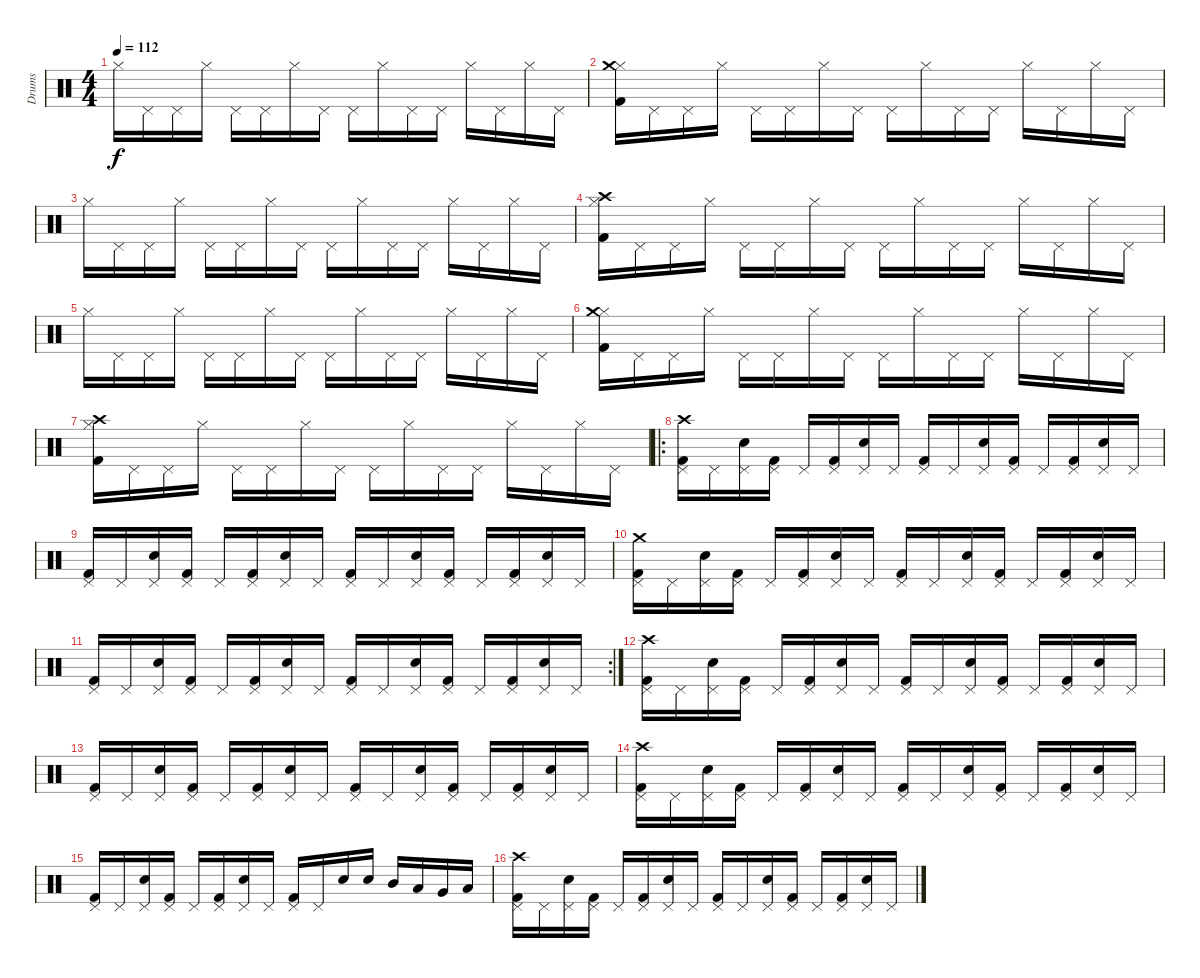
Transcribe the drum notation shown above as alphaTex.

\track ("Drums" "Drums") {instrument percussion}
\staff {score}
\articulation defaults
\ts (4 4)
\tempo 112
\clef neutral
\ks c "Hi-Hat (closed)".16{dy f} "Pedal Hi-Hat (hit)".16 "Pedal Hi-Hat (hit)".16 "Hi-Hat (closed)".16 "Pedal Hi-Hat (hit)".16 "Pedal Hi-Hat (hit)".16 "Hi-Hat (closed)".16 "Pedal Hi-Hat (hit)".16 "Pedal Hi-Hat (hit)".16 "Hi-Hat (closed)".16 "Pedal Hi-Hat (hit)".16 "Pedal Hi-Hat (hit)".16 "Hi-Hat (closed)".16 "Pedal Hi-Hat (hit)".16 "Hi-Hat (closed)".16 "Pedal Hi-Hat (hit)".16
|
("Kick (hit) 2" "Hi-Hat (closed)" "Crash medium (hit)").16 "Pedal Hi-Hat (hit)".16 "Pedal Hi-Hat (hit)".16 "Hi-Hat (closed)".16 "Pedal Hi-Hat (hit)".16 "Pedal Hi-Hat (hit)".16 "Hi-Hat (closed)".16 "Pedal Hi-Hat (hit)".16 "Pedal Hi-Hat (hit)".16 "Hi-Hat (closed)".16 "Pedal Hi-Hat (hit)".16 "Pedal Hi-Hat (hit)".16 "Hi-Hat (closed)".16 "Pedal Hi-Hat (hit)".16 "Hi-Hat (closed)".16 "Pedal Hi-Hat (hit)".16 |
"Hi-Hat (closed)".16 "Pedal Hi-Hat (hit)".16 "Pedal Hi-Hat (hit)".16 "Hi-Hat (closed)".16 "Pedal Hi-Hat (hit)".16 "Pedal Hi-Hat (hit)".16 "Hi-Hat (closed)".16 "Pedal Hi-Hat (hit)".16 "Pedal Hi-Hat (hit)".16 "Hi-Hat (closed)".16 "Pedal Hi-Hat (hit)".16 "Pedal Hi-Hat (hit)".16 "Hi-Hat (closed)".16 "Pedal Hi-Hat (hit)".16 "Hi-Hat (closed)".16 "Pedal Hi-Hat (hit)".16 |
("Kick (hit) 2" "Hi-Hat (closed)" "Crash high (hit)").16 "Pedal Hi-Hat (hit)".16 "Pedal Hi-Hat (hit)".16 "Hi-Hat (closed)".16 "Pedal Hi-Hat (hit)".16 "Pedal Hi-Hat (hit)".16 "Hi-Hat (closed)".16 "Pedal Hi-Hat (hit)".16 "Pedal Hi-Hat (hit)".16 "Hi-Hat (closed)".16 "Pedal Hi-Hat (hit)".16 "Pedal Hi-Hat (hit)".16 "Hi-Hat (closed)".16 "Pedal Hi-Hat (hit)".16 "Hi-Hat (closed)".16 "Pedal Hi-Hat (hit)".16 |
"Hi-Hat (closed)".16 "Pedal Hi-Hat (hit)".16 "Pedal Hi-Hat (hit)".16 "Hi-Hat (closed)".16 "Pedal Hi-Hat (hit)".16 "Pedal Hi-Hat (hit)".16 "Hi-Hat (closed)".16 "Pedal Hi-Hat (hit)".16 "Pedal Hi-Hat (hit)".16 "Hi-Hat (closed)".16 "Pedal Hi-Hat (hit)".16 "Pedal Hi-Hat (hit)".16 "Hi-Hat (closed)".16 "Pedal Hi-Hat (hit)".16 "Hi-Hat (closed)".16 "Pedal Hi-Hat (hit)".16 |
("Kick (hit) 2" "Hi-Hat (closed)" "Crash medium (hit)").16 "Pedal Hi-Hat (hit)".16 "Pedal Hi-Hat (hit)".16 "Hi-Hat (closed)".16 "Pedal Hi-Hat (hit)".16 "Pedal Hi-Hat (hit)".16 "Hi-Hat (closed)".16 "Pedal Hi-Hat (hit)".16 "Pedal Hi-Hat (hit)".16 "Hi-Hat (closed)".16 "Pedal Hi-Hat (hit)".16 "Pedal Hi-Hat (hit)".16 "Hi-Hat (closed)".16 "Pedal Hi-Hat (hit)".16 "Hi-Hat (closed)".16 "Pedal Hi-Hat (hit)".16 |
("Kick (hit) 2" "Hi-Hat (closed)" "Crash high (hit)").16 "Pedal Hi-Hat (hit)".16 "Pedal Hi-Hat (hit)".16 "Hi-Hat (closed)".16 "Pedal Hi-Hat (hit)".16 "Pedal Hi-Hat (hit)".16 "Hi-Hat (closed)".16 "Pedal Hi-Hat (hit)".16 "Pedal Hi-Hat (hit)".16 "Hi-Hat (closed)".16 "Pedal Hi-Hat (hit)".16 "Pedal Hi-Hat (hit)".16 "Hi-Hat (closed)".16 "Pedal Hi-Hat (hit)".16 "Hi-Hat (closed)".16 "Pedal Hi-Hat (hit)".16 |
\ro
("Kick (hit) 2" "Pedal Hi-Hat (hit)" "Crash high (hit)").16 "Pedal Hi-Hat (hit)".16 ("Snare (hit) 2" "Pedal Hi-Hat (hit)").16 ("Kick (hit) 2" "Pedal Hi-Hat (hit)").16 "Pedal Hi-Hat (hit)".16 ("Kick (hit) 2" "Pedal Hi-Hat (hit)").16 ("Snare (hit) 2" "Pedal Hi-Hat (hit)").16 "Pedal Hi-Hat (hit)".16 ("Kick (hit) 2" "Pedal Hi-Hat (hit)").16 "Pedal Hi-Hat (hit)".16 ("Snare (hit) 2" "Pedal Hi-Hat (hit)").16 ("Kick (hit) 2" "Pedal Hi-Hat (hit)").16 "Pedal Hi-Hat (hit)".16 ("Kick (hit) 2" "Pedal Hi-Hat (hit)").16 ("Snare (hit) 2" "Pedal Hi-Hat (hit)").16 "Pedal Hi-Hat (hit)".16 |
("Kick (hit) 2" "Pedal Hi-Hat (hit)").16 "Pedal Hi-Hat (hit)".16 ("Snare (hit) 2" "Pedal Hi-Hat (hit)").16 ("Kick (hit) 2" "Pedal Hi-Hat (hit)").16 "Pedal Hi-Hat (hit)".16 ("Kick (hit) 2" "Pedal Hi-Hat (hit)").16 ("Snare (hit) 2" "Pedal Hi-Hat (hit)").16 "Pedal Hi-Hat (hit)".16 ("Kick (hit) 2" "Pedal Hi-Hat (hit)").16 "Pedal Hi-Hat (hit)".16 ("Snare (hit) 2" "Pedal Hi-Hat (hit)").16 ("Kick (hit) 2" "Pedal Hi-Hat (hit)").16 "Pedal Hi-Hat (hit)".16 ("Kick (hit) 2" "Pedal Hi-Hat (hit)").16 ("Snare (hit) 2" "Pedal Hi-Hat (hit)").16 "Pedal Hi-Hat (hit)".16 |
("Kick (hit) 2" "Pedal Hi-Hat (hit)" "Crash medium (hit)").16 "Pedal Hi-Hat (hit)".16 ("Snare (hit) 2" "Pedal Hi-Hat (hit)").16 ("Kick (hit) 2" "Pedal Hi-Hat (hit)").16 "Pedal Hi-Hat (hit)".16 ("Kick (hit) 2" "Pedal Hi-Hat (hit)").16 ("Snare (hit) 2" "Pedal Hi-Hat (hit)").16 "Pedal Hi-Hat (hit)".16 ("Kick (hit) 2" "Pedal Hi-Hat (hit)").16 "Pedal Hi-Hat (hit)".16 ("Snare (hit) 2" "Pedal Hi-Hat (hit)").16 ("Kick (hit) 2" "Pedal Hi-Hat (hit)").16 "Pedal Hi-Hat (hit)".16 ("Kick (hit) 2" "Pedal Hi-Hat (hit)").16 ("Snare (hit) 2" "Pedal Hi-Hat (hit)").16 "Pedal Hi-Hat (hit)".16 |
\rc 2
("Kick (hit) 2" "Pedal Hi-Hat (hit)").16 "Pedal Hi-Hat (hit)".16 ("Snare (hit) 2" "Pedal Hi-Hat (hit)").16 ("Kick (hit) 2" "Pedal Hi-Hat (hit)").16 "Pedal Hi-Hat (hit)".16 ("Kick (hit) 2" "Pedal Hi-Hat (hit)").16 ("Snare (hit) 2" "Pedal Hi-Hat (hit)").16 "Pedal Hi-Hat (hit)".16 ("Kick (hit) 2" "Pedal Hi-Hat (hit)").16 "Pedal Hi-Hat (hit)".16 ("Snare (hit) 2" "Pedal Hi-Hat (hit)").16 ("Kick (hit) 2" "Pedal Hi-Hat (hit)").16 "Pedal Hi-Hat (hit)".16 ("Kick (hit) 2" "Pedal Hi-Hat (hit)").16 ("Snare (hit) 2" "Pedal Hi-Hat (hit)").16 "Pedal Hi-Hat (hit)".16 |
("Kick (hit) 2" "Pedal Hi-Hat (hit)" "Crash high (hit)").16 "Pedal Hi-Hat (hit)".16 ("Snare (hit) 2" "Pedal Hi-Hat (hit)").16 ("Kick (hit) 2" "Pedal Hi-Hat (hit)").16 "Pedal Hi-Hat (hit)".16 ("Kick (hit) 2" "Pedal Hi-Hat (hit)").16 ("Snare (hit) 2" "Pedal Hi-Hat (hit)").16 "Pedal Hi-Hat (hit)".16 ("Kick (hit) 2" "Pedal Hi-Hat (hit)").16 "Pedal Hi-Hat (hit)".16 ("Snare (hit) 2" "Pedal Hi-Hat (hit)").16 ("Kick (hit) 2" "Pedal Hi-Hat (hit)").16 "Pedal Hi-Hat (hit)".16 ("Kick (hit) 2" "Pedal Hi-Hat (hit)").16 ("Snare (hit) 2" "Pedal Hi-Hat (hit)").16 "Pedal Hi-Hat (hit)".16 |
("Kick (hit) 2" "Pedal Hi-Hat (hit)").16 "Pedal Hi-Hat (hit)".16 ("Snare (hit) 2" "Pedal Hi-Hat (hit)").16 ("Kick (hit) 2" "Pedal Hi-Hat (hit)").16 "Pedal Hi-Hat (hit)".16 ("Kick (hit) 2" "Pedal Hi-Hat (hit)").16 ("Snare (hit) 2" "Pedal Hi-Hat (hit)").16 "Pedal Hi-Hat (hit)".16 ("Kick (hit) 2" "Pedal Hi-Hat (hit)").16 "Pedal Hi-Hat (hit)".16 ("Snare (hit) 2" "Pedal Hi-Hat (hit)").16 ("Kick (hit) 2" "Pedal Hi-Hat (hit)").16 "Pedal Hi-Hat (hit)".16 ("Kick (hit) 2" "Pedal Hi-Hat (hit)").16 ("Snare (hit) 2" "Pedal Hi-Hat (hit)").16 "Pedal Hi-Hat (hit)".16 |
("Kick (hit) 2" "Pedal Hi-Hat (hit)" "Crash high (hit)").16 "Pedal Hi-Hat (hit)".16 ("Snare (hit) 2" "Pedal Hi-Hat (hit)").16 ("Kick (hit) 2" "Pedal Hi-Hat (hit)").16 "Pedal Hi-Hat (hit)".16 ("Kick (hit) 2" "Pedal Hi-Hat (hit)").16 ("Snare (hit) 2" "Pedal Hi-Hat (hit)").16 "Pedal Hi-Hat (hit)".16 ("Kick (hit) 2" "Pedal Hi-Hat (hit)").16 "Pedal Hi-Hat (hit)".16 ("Snare (hit) 2" "Pedal Hi-Hat (hit)").16 ("Kick (hit) 2" "Pedal Hi-Hat (hit)").16 "Pedal Hi-Hat (hit)".16 ("Kick (hit) 2" "Pedal Hi-Hat (hit)").16 ("Snare (hit) 2" "Pedal Hi-Hat (hit)").16 "Pedal Hi-Hat (hit)".16 |
("Kick (hit) 2" "Pedal Hi-Hat (hit)").16 "Pedal Hi-Hat (hit)".16 ("Snare (hit) 2" "Pedal Hi-Hat (hit)").16 ("Kick (hit) 2" "Pedal Hi-Hat (hit)").16 "Pedal Hi-Hat (hit)".16 ("Kick (hit) 2" "Pedal Hi-Hat (hit)").16 ("Snare (hit) 2" "Pedal Hi-Hat (hit)").16 "Pedal Hi-Hat (hit)".16 ("Kick (hit) 2" "Pedal Hi-Hat (hit)").16 "Pedal Hi-Hat (hit)".16 "Snare (hit) 2".16 "Snare (hit) 2".16 "Mid Tom (hit)".16 "Low Tom (hit)".16 "Very Low Tom (hit)".16 "Low Floor Tom (hit)".16 |
("Kick (hit) 2" "Pedal Hi-Hat (hit)" "Crash high (hit)").16 "Pedal Hi-Hat (hit)".16 ("Snare (hit) 2" "Pedal Hi-Hat (hit)").16 ("Kick (hit) 2" "Pedal Hi-Hat (hit)").16 "Pedal Hi-Hat (hit)".16 ("Kick (hit) 2" "Pedal Hi-Hat (hit)").16 ("Snare (hit) 2" "Pedal Hi-Hat (hit)").16 "Pedal Hi-Hat (hit)".16 ("Kick (hit) 2" "Pedal Hi-Hat (hit)").16 "Pedal Hi-Hat (hit)".16 ("Snare (hit) 2" "Pedal Hi-Hat (hit)").16 ("Kick (hit) 2" "Pedal Hi-Hat (hit)").16 "Pedal Hi-Hat (hit)".16 ("Kick (hit) 2" "Pedal Hi-Hat (hit)").16 ("Snare (hit) 2" "Pedal Hi-Hat (hit)").16 "Pedal Hi-Hat (hit)".16
